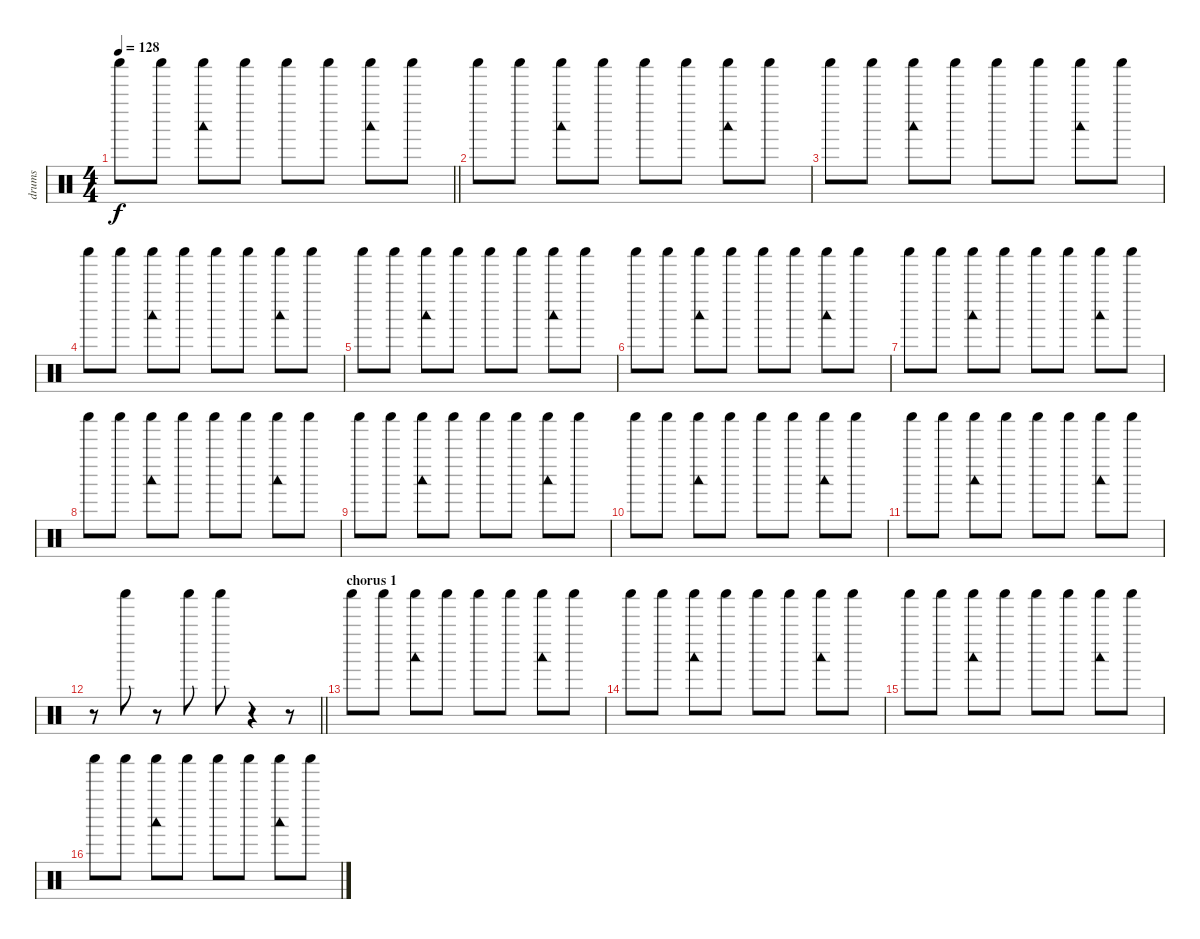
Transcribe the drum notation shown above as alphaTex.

\track ("drums" "drums") {instrument percussion}
\staff {score}
\articulation defaults
\ts (4 4)
\tempo 128
\clef neutral
\barLineRight lightlight
\ks c "Shaker (hit)".8{dy f} "Shaker (hit)".8
("Shaker (hit)" "Woodblock low (hit)").8 "Shaker (hit)".8 "Shaker (hit)".8 "Shaker (hit)".8 ("Shaker (hit)" "Woodblock low (hit)").8 "Shaker (hit)".8 |
"Shaker (hit)".8 "Shaker (hit)".8 ("Shaker (hit)" "Woodblock low (hit)").8 "Shaker (hit)".8 "Shaker (hit)".8 "Shaker (hit)".8 ("Shaker (hit)" "Woodblock low (hit)").8 "Shaker (hit)".8 |
"Shaker (hit)".8 "Shaker (hit)".8 ("Shaker (hit)" "Woodblock low (hit)").8 "Shaker (hit)".8 "Shaker (hit)".8 "Shaker (hit)".8 ("Shaker (hit)" "Woodblock low (hit)").8 "Shaker (hit)".8 |
"Shaker (hit)".8 "Shaker (hit)".8 ("Shaker (hit)" "Woodblock low (hit)").8 "Shaker (hit)".8 "Shaker (hit)".8 "Shaker (hit)".8 ("Shaker (hit)" "Woodblock low (hit)").8 "Shaker (hit)".8 |
"Shaker (hit)".8 "Shaker (hit)".8 ("Shaker (hit)" "Woodblock low (hit)").8 "Shaker (hit)".8 "Shaker (hit)".8 "Shaker (hit)".8 ("Shaker (hit)" "Woodblock low (hit)").8 "Shaker (hit)".8 |
"Shaker (hit)".8 "Shaker (hit)".8 ("Shaker (hit)" "Woodblock low (hit)").8 "Shaker (hit)".8 "Shaker (hit)".8 "Shaker (hit)".8 ("Shaker (hit)" "Woodblock low (hit)").8 "Shaker (hit)".8 |
"Shaker (hit)".8 "Shaker (hit)".8 ("Shaker (hit)" "Woodblock low (hit)").8 "Shaker (hit)".8 "Shaker (hit)".8 "Shaker (hit)".8 ("Shaker (hit)" "Woodblock low (hit)").8 "Shaker (hit)".8 |
"Shaker (hit)".8 "Shaker (hit)".8 ("Shaker (hit)" "Woodblock low (hit)").8 "Shaker (hit)".8 "Shaker (hit)".8 "Shaker (hit)".8 ("Shaker (hit)" "Woodblock low (hit)").8 "Shaker (hit)".8 |
"Shaker (hit)".8 "Shaker (hit)".8 ("Shaker (hit)" "Woodblock low (hit)").8 "Shaker (hit)".8 "Shaker (hit)".8 "Shaker (hit)".8 ("Shaker (hit)" "Woodblock low (hit)").8 "Shaker (hit)".8 |
"Shaker (hit)".8 "Shaker (hit)".8 ("Shaker (hit)" "Woodblock low (hit)").8 "Shaker (hit)".8 "Shaker (hit)".8 "Shaker (hit)".8 ("Shaker (hit)" "Woodblock low (hit)").8 "Shaker (hit)".8 |
"Shaker (hit)".8 "Shaker (hit)".8 ("Shaker (hit)" "Woodblock low (hit)").8 "Shaker (hit)".8 "Shaker (hit)".8 "Shaker (hit)".8 ("Shaker (hit)" "Woodblock low (hit)").8 "Shaker (hit)".8 |
\barLineRight lightlight
r.8 "Shaker (hit)".8 r.8 "Shaker (hit)".8 "Shaker (hit)".8 r.4 r.8 |
\section ("" "chorus 1")
"Shaker (hit)".8 "Shaker (hit)".8 ("Shaker (hit)" "Woodblock low (hit)").8 "Shaker (hit)".8 "Shaker (hit)".8 "Shaker (hit)".8 ("Shaker (hit)" "Woodblock low (hit)").8 "Shaker (hit)".8 |
"Shaker (hit)".8 "Shaker (hit)".8 ("Shaker (hit)" "Woodblock low (hit)").8 "Shaker (hit)".8 "Shaker (hit)".8 "Shaker (hit)".8 ("Shaker (hit)" "Woodblock low (hit)").8 "Shaker (hit)".8 |
"Shaker (hit)".8 "Shaker (hit)".8 ("Shaker (hit)" "Woodblock low (hit)").8 "Shaker (hit)".8 "Shaker (hit)".8 "Shaker (hit)".8 ("Shaker (hit)" "Woodblock low (hit)").8 "Shaker (hit)".8 |
"Shaker (hit)".8 "Shaker (hit)".8 ("Shaker (hit)" "Woodblock low (hit)").8 "Shaker (hit)".8 "Shaker (hit)".8 "Shaker (hit)".8 ("Shaker (hit)" "Woodblock low (hit)").8 "Shaker (hit)".8
